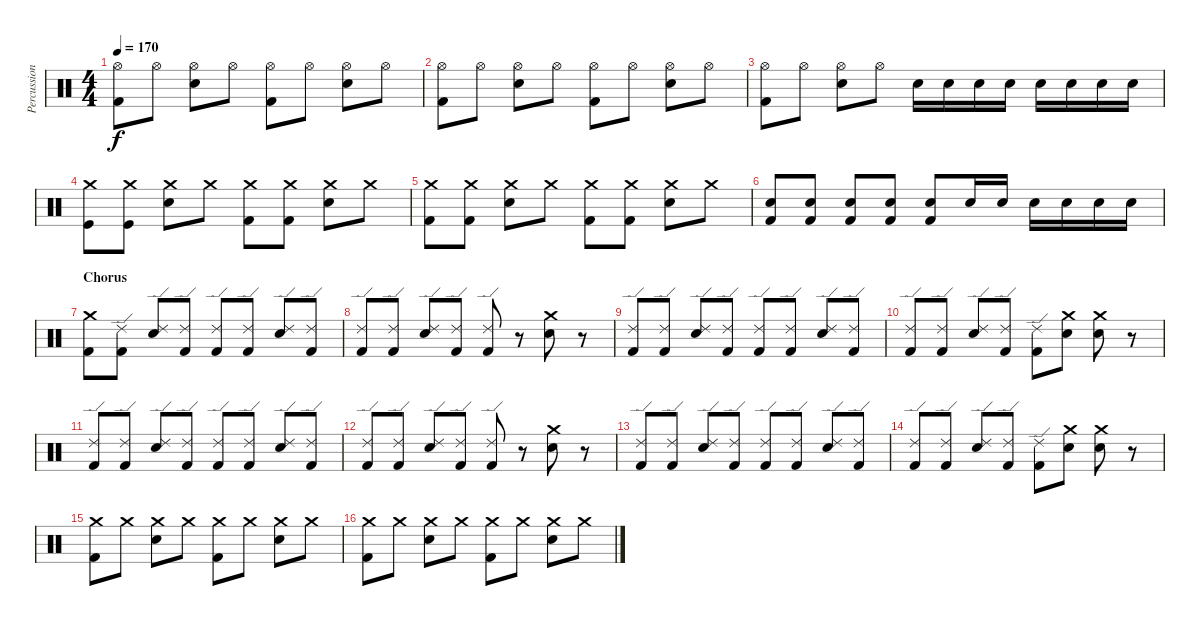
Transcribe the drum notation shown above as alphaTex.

\track ("Percussion" "Percussion") {instrument percussion}
\staff {score}
\articulation defaults
\ts (4 4)
\tempo 170
\clef neutral
\ks c
("Hi-Hat (open)" "Kick (hit) 2").8{dy f} "Hi-Hat (open)".8 ("Hi-Hat (open)" "Snare (hit) 2").8 "Hi-Hat (open)".8 ("Hi-Hat (open)" "Kick (hit) 2").8 "Hi-Hat (open)".8 ("Hi-Hat (open)" "Snare (hit) 2").8 "Hi-Hat (open)".8 |
("Hi-Hat (open)" "Kick (hit) 2").8 "Hi-Hat (open)".8 ("Hi-Hat (open)" "Snare (hit) 2").8 "Hi-Hat (open)".8 ("Hi-Hat (open)" "Kick (hit) 2").8 "Hi-Hat (open)".8 ("Hi-Hat (open)" "Snare (hit) 2").8 "Hi-Hat (open)".8 |
("Hi-Hat (open)" "Kick (hit) 2").8 "Hi-Hat (open)".8 ("Hi-Hat (open)" "Snare (hit) 2").8 "Hi-Hat (open)".8 "Snare (hit) 2".16 "Snare (hit) 2".16 "Snare (hit) 2".16 "Snare (hit) 2".16 "Snare (hit) 2".16 "Snare (hit) 2".16 "Snare (hit) 2".16 "Snare (hit) 2".16 |
("Crash medium (hit)" "Kick (hit)").8 ("Crash medium (hit)" "Kick (hit)").8 ("Crash medium (hit)" "Snare (hit) 2").8 "Crash medium (hit)".8 ("Crash medium (hit)" "Kick (hit) 2").8 ("Crash medium (hit)" "Kick (hit) 2").8 ("Crash medium (hit)" "Snare (hit) 2").8 "Crash medium (hit)".8 |
("Crash medium (hit)" "Kick (hit) 2").8 ("Crash medium (hit)" "Kick (hit) 2").8 ("Crash medium (hit)" "Snare (hit) 2").8 "Crash medium (hit)".8 ("Crash medium (hit)" "Kick (hit) 2").8 ("Crash medium (hit)" "Kick (hit) 2").8 ("Crash medium (hit)" "Snare (hit) 2").8 "Crash medium (hit)".8 |
("Snare (hit) 2" "Kick (hit) 2").8 ("Snare (hit) 2" "Kick (hit) 2").8 ("Snare (hit) 2" "Kick (hit) 2").8 ("Snare (hit) 2" "Kick (hit) 2").8 ("Snare (hit) 2" "Kick (hit) 2").8 "Snare (hit) 2".16 "Snare (hit) 2".16 "Snare (hit) 2".16 "Snare (hit) 2".16 "Snare (hit) 2".16 "Snare (hit) 2".16 |
\section ("" "Chorus")
("Crash medium (hit)" "Kick (hit) 2").8 ("Ride (edge) 2" "Kick (hit) 2").8 ("Ride (edge) 2" "Snare (hit) 2").8 ("Ride (edge) 2" "Kick (hit) 2").8 ("Ride (edge) 2" "Kick (hit) 2").8 ("Ride (edge) 2" "Kick (hit) 2").8 ("Ride (edge) 2" "Snare (hit) 2").8 ("Ride (edge) 2" "Kick (hit) 2").8 |
("Ride (edge) 2" "Kick (hit) 2").8 ("Ride (edge) 2" "Kick (hit) 2").8 ("Ride (edge) 2" "Snare (hit) 2").8 ("Ride (edge) 2" "Kick (hit) 2").8 ("Ride (edge) 2" "Kick (hit) 2").8 r.8 ("Crash medium (hit)" "Snare (hit) 2").8 r.8 |
("Ride (edge) 2" "Kick (hit) 2").8 ("Ride (edge) 2" "Kick (hit) 2").8 ("Ride (edge) 2" "Snare (hit) 2").8 ("Ride (edge) 2" "Kick (hit) 2").8 ("Ride (edge) 2" "Kick (hit) 2").8 ("Ride (edge) 2" "Kick (hit) 2").8 ("Ride (edge) 2" "Snare (hit) 2").8 ("Ride (edge) 2" "Kick (hit) 2").8 |
("Ride (edge) 2" "Kick (hit) 2").8 ("Ride (edge) 2" "Kick (hit) 2").8 ("Ride (edge) 2" "Snare (hit) 2").8 ("Ride (edge) 2" "Kick (hit) 2").8 ("Ride (edge) 2" "Kick (hit) 2").8 ("Crash medium (hit)" "Snare (hit) 2").8 ("Crash medium (hit)" "Snare (hit) 2").8 r.8 |
("Ride (edge) 2" "Kick (hit) 2").8 ("Ride (edge) 2" "Kick (hit) 2").8 ("Ride (edge) 2" "Snare (hit) 2").8 ("Ride (edge) 2" "Kick (hit) 2").8 ("Ride (edge) 2" "Kick (hit) 2").8 ("Ride (edge) 2" "Kick (hit) 2").8 ("Ride (edge) 2" "Snare (hit) 2").8 ("Ride (edge) 2" "Kick (hit) 2").8 |
("Ride (edge) 2" "Kick (hit) 2").8 ("Ride (edge) 2" "Kick (hit) 2").8 ("Ride (edge) 2" "Snare (hit) 2").8 ("Ride (edge) 2" "Kick (hit) 2").8 ("Ride (edge) 2" "Kick (hit) 2").8 r.8 ("Crash medium (hit)" "Snare (hit) 2").8 r.8 |
("Ride (edge) 2" "Kick (hit) 2").8 ("Ride (edge) 2" "Kick (hit) 2").8 ("Ride (edge) 2" "Snare (hit) 2").8 ("Ride (edge) 2" "Kick (hit) 2").8 ("Ride (edge) 2" "Kick (hit) 2").8 ("Ride (edge) 2" "Kick (hit) 2").8 ("Ride (edge) 2" "Snare (hit) 2").8 ("Ride (edge) 2" "Kick (hit) 2").8 |
("Ride (edge) 2" "Kick (hit) 2").8 ("Ride (edge) 2" "Kick (hit) 2").8 ("Ride (edge) 2" "Snare (hit) 2").8 ("Ride (edge) 2" "Kick (hit) 2").8 ("Ride (edge) 2" "Kick (hit) 2").8 ("Crash medium (hit)" "Snare (hit) 2").8 ("Crash medium (hit)" "Snare (hit) 2").8 r.8 |
("Crash medium (hit)" "Kick (hit) 2").8 "Crash medium (hit)".8 ("Crash medium (hit)" "Snare (hit) 2").8 "Crash medium (hit)".8 ("Crash medium (hit)" "Kick (hit) 2").8 "Crash medium (hit)".8 ("Crash medium (hit)" "Snare (hit) 2").8 "Crash medium (hit)".8 |
("Crash medium (hit)" "Kick (hit) 2").8 "Crash medium (hit)".8 ("Crash medium (hit)" "Snare (hit) 2").8 "Crash medium (hit)".8 ("Crash medium (hit)" "Kick (hit) 2").8 "Crash medium (hit)".8 ("Crash medium (hit)" "Snare (hit) 2").8 "Crash medium (hit)".8
